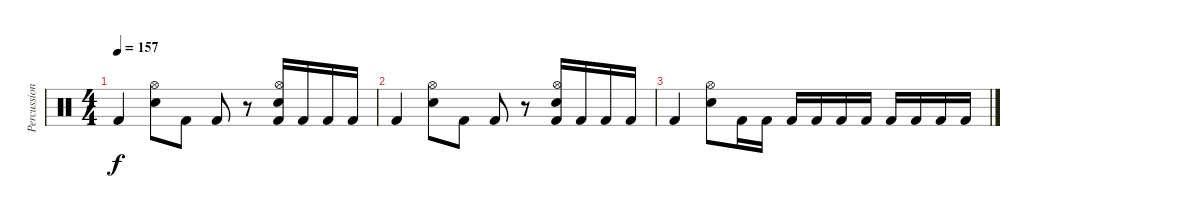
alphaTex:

\track ("Percussion" "Percussion") {instrument percussion}
\staff {score}
\articulation defaults
\ts (4 4)
\tempo 157
\clef neutral
\ks c "Kick (hit) 2".4{dy f}
("Hi-Hat (open)" "Snare (hit) 2").8 "Kick (hit) 2".8 "Kick (hit) 2".8 r.8 ("Hi-Hat (open)" "Snare (hit) 2" "Kick (hit) 2").16 "Kick (hit) 2".16 "Kick (hit) 2".16 "Kick (hit) 2".16 |
"Kick (hit) 2".4 ("Hi-Hat (open)" "Snare (hit) 2").8 "Kick (hit) 2".8 "Kick (hit) 2".8 r.8 ("Hi-Hat (open)" "Snare (hit) 2" "Kick (hit) 2").16 "Kick (hit) 2".16 "Kick (hit) 2".16 "Kick (hit) 2".16 |
"Kick (hit) 2".4 ("Hi-Hat (open)" "Snare (hit) 2").8 "Kick (hit) 2".16 "Kick (hit) 2".16 "Kick (hit) 2".16 "Kick (hit) 2".16 "Kick (hit) 2".16 "Kick (hit) 2".16 "Kick (hit) 2".16 "Kick (hit) 2".16 "Kick (hit) 2".16 "Kick (hit) 2".16
